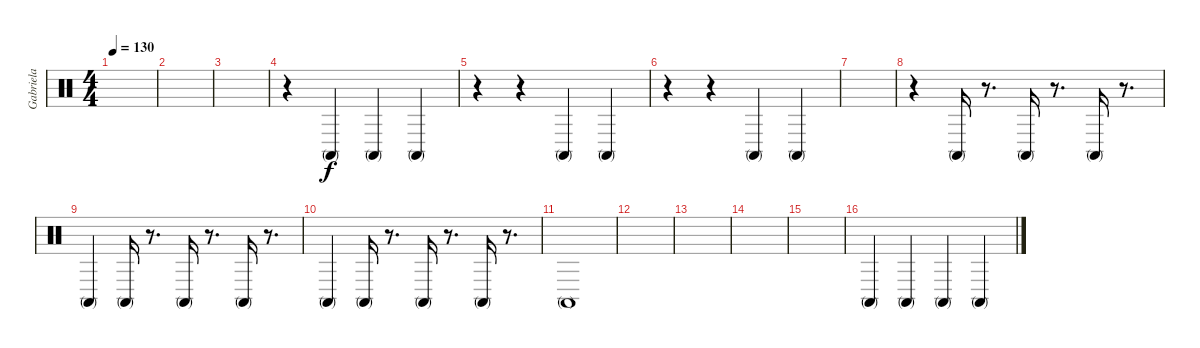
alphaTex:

\track ("Gabriela " "Gabriela ") {instrument percussion}
\staff {score}
\articulation defaults
\ts (4 4)
\tempo 130
\clef neutral
\ks c
|
|
|
r.4 "Conga high (mute)".4 "Conga high (mute)".4 "Conga high (mute)".4 |
r.4 r.4 "Conga high (mute)".4 "Conga high (mute)".4 |
r.4 r.4 "Conga high (mute)".4 "Conga high (mute)".4 |
|
r.4 "Conga high (mute)".16 r.8{d} "Conga high (mute)".16 r.8{d} "Conga high (mute)".16 r.8{d} |
"Conga high (mute)".4 "Conga high (mute)".16 r.8{d} "Conga high (mute)".16 r.8{d} "Conga high (mute)".16 r.8{d} |
"Conga high (mute)".4 "Conga high (mute)".16 r.8{d} "Conga high (mute)".16 r.8{d} "Conga high (mute)".16 r.8{d} |
"Conga high (mute)".1 |
|
|
|
|
"Conga high (mute)".4 "Conga high (mute)".4 "Conga high (mute)".4 "Conga high (mute)".4
